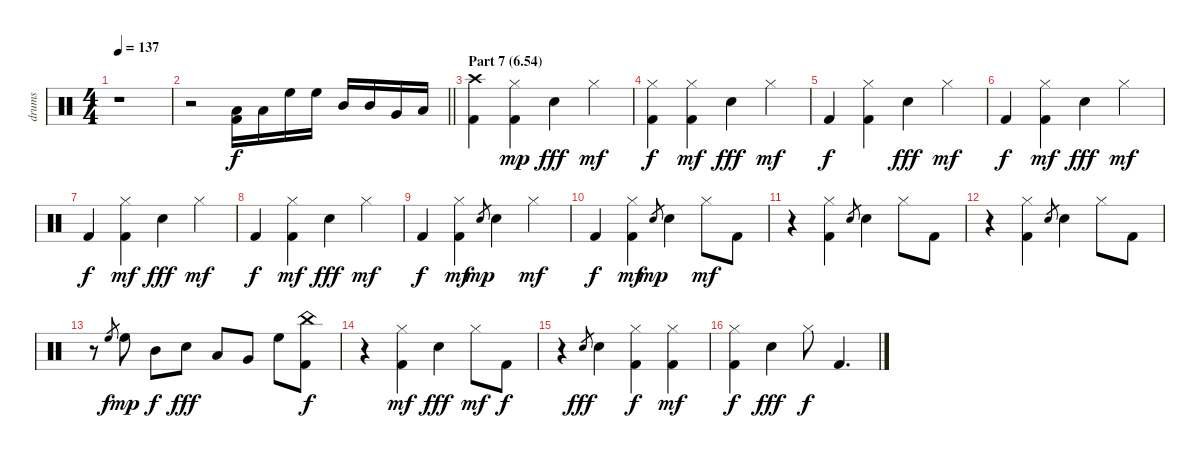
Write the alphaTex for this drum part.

\track ("drums" "drums") {instrument percussion}
\staff {score}
\articulation defaults
\ts (4 4)
\tempo 137
\clef neutral
\ks c
r.1{dy f} |
\barLineRight lightlight
r.2 ("Low Tom (hit)" "Kick (hit) 2").16 "Low Tom (hit)".16 "High Floor Tom (hit)".16 "High Floor Tom (hit)".16 "Mid Tom (hit)".16 "Mid Tom (hit)".16 "Very Low Tom (hit)".16 "Low Floor Tom (hit)".16 |
\section ("" "Part 7 (6.54)")
("Kick (hit) 2" "Crash high (hit)").4 ("Kick (hit) 2" "Hi-Hat (closed)").4{dy mp} "Electric Snare (hit)".4{dy fff} "Hi-Hat (closed)".4{dy mf} |
("Hi-Hat (closed)" "Kick (hit) 2").4{dy f} ("Hi-Hat (closed)" "Kick (hit) 2").4{dy mf} "Electric Snare (hit)".4{dy fff} "Hi-Hat (closed)".4{dy mf} |
"Kick (hit) 2".4{dy f} ("Kick (hit) 2" "Hi-Hat (closed)").4 "Electric Snare (hit)".4{dy fff} "Hi-Hat (closed)".4{dy mf} |
"Kick (hit) 2".4{dy f} ("Kick (hit) 2" "Hi-Hat (closed)").4{dy mf} "Electric Snare (hit)".4{dy fff} "Hi-Hat (closed)".4{dy mf} |
"Kick (hit) 2".4{dy f} ("Kick (hit) 2" "Hi-Hat (closed)").4{dy mf} "Electric Snare (hit)".4{dy fff} "Hi-Hat (closed)".4{dy mf} |
"Kick (hit) 2".4{dy f} ("Kick (hit) 2" "Hi-Hat (closed)").4{dy mf} "Electric Snare (hit)".4{dy fff} "Hi-Hat (closed)".4{dy mf} |
"Kick (hit) 2".4{dy f} ("Kick (hit) 2" "Hi-Hat (closed)").4{dy mf} "Electric Snare (hit)".8{gr dy mp} "Electric Snare (hit)".4 "Hi-Hat (closed)".4{dy mf} |
"Kick (hit) 2".4{dy f} ("Hi-Hat (closed)" "Kick (hit) 2").4{dy mf} "Electric Snare (hit)".8{gr dy mp} "Electric Snare (hit)".4 "Hi-Hat (closed)".8{dy mf} "Kick (hit) 2".8 |
r.4 ("Hi-Hat (closed)" "Kick (hit) 2").4 "Electric Snare (hit)".8{gr} "Electric Snare (hit)".4 "Hi-Hat (closed)".8 "Kick (hit) 2".8 |
r.4 ("Hi-Hat (closed)" "Kick (hit) 2").4 "Electric Snare (hit)".8{gr} "Electric Snare (hit)".4 "Hi-Hat (closed)".8 "Kick (hit) 2".8 |
r.8 "High Floor Tom (hit)".8{gr dy f} "High Floor Tom (hit)".8{dy mp} "Mid Tom (hit)".8{dy f} "Electric Snare (hit)".8{dy fff} "Low Tom (hit)".8 "Very Low Tom (hit)".8 "High Floor Tom (hit)".8 ("Kick (hit) 2" "China (hit)").8{dy f} |
r.4 ("Kick (hit) 2" "Hi-Hat (closed)").4{dy mf} "Electric Snare (hit)".4{dy fff} "Hi-Hat (closed)".8{dy mf} "Kick (hit) 2".8{dy f} |
r.4 "Electric Snare (hit)".8{gr dy fff} "Electric Snare (hit)".4 ("Kick (hit) 2" "Hi-Hat (closed)").4{dy f} ("Hi-Hat (closed)" "Kick (hit) 2").4{dy mf} |
("Hi-Hat (closed)" "Kick (hit) 2").4{dy f} "Electric Snare (hit)".4{dy fff} "Hi-Hat (closed)".8{dy f} "Kick (hit) 2".4{d}
